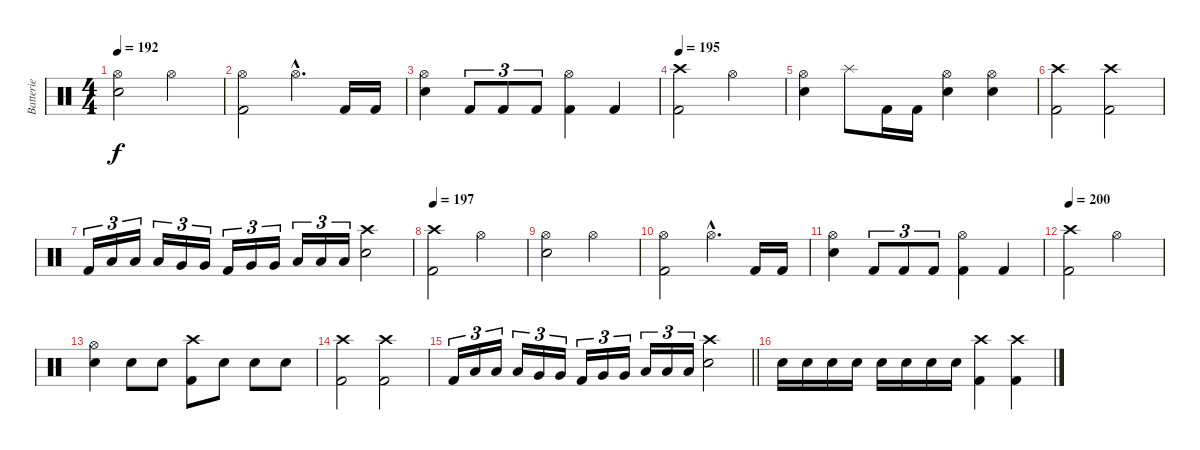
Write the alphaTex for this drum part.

\track ("Batterie" "Batterie") {instrument percussion}
\staff {score}
\articulation defaults
\ts (4 4)
\tempo 192
\clef neutral
\ks c
("Hi-Hat (open)" "Electric Snare (hit)").2{dy f} "Hi-Hat (open)".2 |
("Hi-Hat (open)" "Kick (hit) 2").2 "Hi-Hat (open)"{hac}.4{d} "Kick (hit) 2".16 "Kick (hit) 2".16 |
("Hi-Hat (open)" "Electric Snare (hit)").4 "Kick (hit) 2".8{tu (3 2)} "Kick (hit) 2".8{tu (3 2)} "Kick (hit) 2".8{tu (3 2)} ("Hi-Hat (open)" "Kick (hit) 2").4 "Kick (hit) 2".4 |
\tempo 195
("Crash high (hit)" "Kick (hit) 2").2 "Hi-Hat (open)".2 |
("Hi-Hat (open)" "Electric Snare (hit)").4 "Splash (hit)".8 "Kick (hit) 2".16 "Kick (hit) 2".16 ("Hi-Hat (open)" "Electric Snare (hit)").4 ("Hi-Hat (open)" "Electric Snare (hit)").4 |
("Crash high (hit)" "Kick (hit) 2").2 ("Crash high (hit)" "Kick (hit) 2").2 |
"Kick (hit) 2".16{tu (3 2)} "Low Tom (hit)".16{tu (3 2)} "Low Tom (hit)".16{tu (3 2)} "Low Tom (hit)".16{tu (3 2)} "Very Low Tom (hit)".16{tu (3 2)} "Very Low Tom (hit)".16{tu (3 2)} "Kick (hit) 2".16{tu (3 2)} "Very Low Tom (hit)".16{tu (3 2)} "Very Low Tom (hit)".16{tu (3 2)} "Low Floor Tom (hit)".16{tu (3 2)} "Low Floor Tom (hit)".16{tu (3 2)} "Low Floor Tom (hit)".16{tu (3 2)} ("Crash high (hit)" "Electric Snare (hit)").2 |
\tempo 197
("Crash high (hit)" "Kick (hit) 2").2 "Hi-Hat (open)".2 |
("Hi-Hat (open)" "Electric Snare (hit)").2 "Hi-Hat (open)".2 |
("Hi-Hat (open)" "Kick (hit) 2").2 "Hi-Hat (open)"{hac}.4{d} "Kick (hit) 2".16 "Kick (hit) 2".16 |
("Hi-Hat (open)" "Electric Snare (hit)").4 "Kick (hit) 2".8{tu (3 2)} "Kick (hit) 2".8{tu (3 2)} "Kick (hit) 2".8{tu (3 2)} ("Hi-Hat (open)" "Kick (hit) 2").4 "Kick (hit) 2".4 |
\tempo 200
("Crash high (hit)" "Kick (hit) 2").2 "Hi-Hat (open)".2 |
("Hi-Hat (open)" "Electric Snare (hit)").4 "Electric Snare (hit)".8 "Electric Snare (hit)".8 ("Crash high (hit)" "Kick (hit) 2").8 "Electric Snare (hit)".8 "Electric Snare (hit)".8 "Electric Snare (hit)".8 |
("Crash high (hit)" "Kick (hit) 2").2 ("Crash high (hit)" "Kick (hit) 2").2 |
\barLineRight lightlight "Kick (hit) 2".16{tu (3 2)} "Low Tom (hit)".16{tu (3 2)} "Low Tom (hit)".16{tu (3 2)} "Low Tom (hit)".16{tu (3 2)} "Very Low Tom (hit)".16{tu (3 2)} "Very Low Tom (hit)".16{tu (3 2)} "Kick (hit) 2".16{tu (3 2)} "Very Low Tom (hit)".16{tu (3 2)} "Very Low Tom (hit)".16{tu (3 2)} "Low Floor Tom (hit)".16{tu (3 2)} "Low Floor Tom (hit)".16{tu (3 2)} "Low Floor Tom (hit)".16{tu (3 2)}
("Crash high (hit)" "Electric Snare (hit)").2 |
"Electric Snare (hit)".16 "Electric Snare (hit)".16 "Electric Snare (hit)".16 "Electric Snare (hit)".16 "Electric Snare (hit)".16 "Electric Snare (hit)".16 "Electric Snare (hit)".16 "Electric Snare (hit)".16 ("Crash high (hit)" "Kick (hit) 2").4 ("Crash high (hit)" "Kick (hit) 2").4
